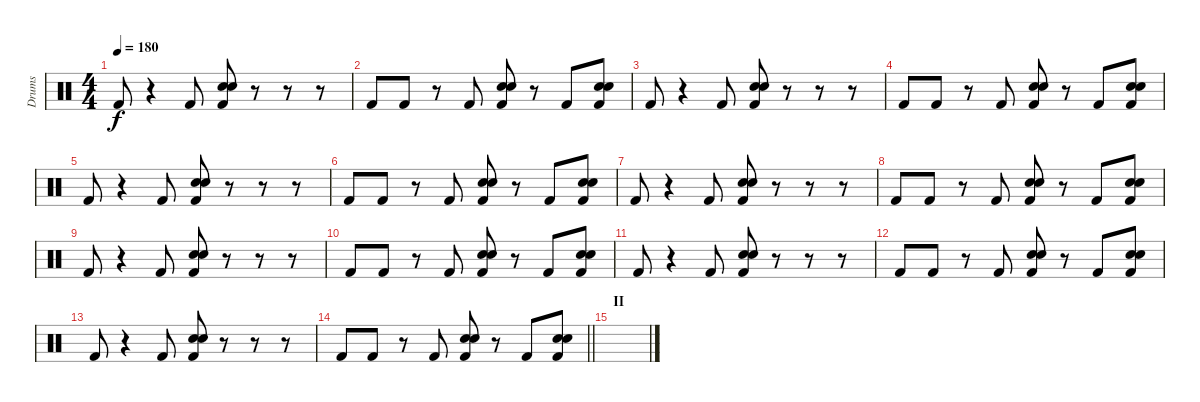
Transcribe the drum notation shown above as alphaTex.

\track ("Drums" "Drums") {instrument percussion}
\staff {score}
\articulation defaults
\ts (4 4)
\tempo 180
\clef neutral
\ks c "Kick (hit) 2".8{dy f}
r.4 "Kick (hit) 2".8 ("Kick (hit) 2" "Snare (hit) 2" "Electric Snare (hit)").8 r.8 r.8 r.8 |
"Kick (hit) 2".8 "Kick (hit) 2".8 r.8 "Kick (hit) 2".8 ("Kick (hit) 2" "Snare (hit) 2" "Electric Snare (hit)").8 r.8 "Kick (hit) 2".8 ("Kick (hit) 2" "Snare (hit) 2" "Electric Snare (hit)").8 |
"Kick (hit) 2".8 r.4 "Kick (hit) 2".8 ("Kick (hit) 2" "Snare (hit) 2" "Electric Snare (hit)").8 r.8 r.8 r.8 |
"Kick (hit) 2".8 "Kick (hit) 2".8 r.8 "Kick (hit) 2".8 ("Kick (hit) 2" "Snare (hit) 2" "Electric Snare (hit)").8 r.8 "Kick (hit) 2".8 ("Kick (hit) 2" "Snare (hit) 2" "Electric Snare (hit)").8 |
"Kick (hit) 2".8 r.4 "Kick (hit) 2".8 ("Kick (hit) 2" "Snare (hit) 2" "Electric Snare (hit)").8 r.8 r.8 r.8 |
"Kick (hit) 2".8 "Kick (hit) 2".8 r.8 "Kick (hit) 2".8 ("Kick (hit) 2" "Snare (hit) 2" "Electric Snare (hit)").8 r.8 "Kick (hit) 2".8 ("Kick (hit) 2" "Snare (hit) 2" "Electric Snare (hit)").8 |
"Kick (hit) 2".8 r.4 "Kick (hit) 2".8 ("Kick (hit) 2" "Snare (hit) 2" "Electric Snare (hit)").8 r.8 r.8 r.8 |
"Kick (hit) 2".8 "Kick (hit) 2".8 r.8 "Kick (hit) 2".8 ("Kick (hit) 2" "Snare (hit) 2" "Electric Snare (hit)").8 r.8 "Kick (hit) 2".8 ("Kick (hit) 2" "Snare (hit) 2" "Electric Snare (hit)").8 |
"Kick (hit) 2".8 r.4 "Kick (hit) 2".8 ("Kick (hit) 2" "Snare (hit) 2" "Electric Snare (hit)").8 r.8 r.8 r.8 |
"Kick (hit) 2".8 "Kick (hit) 2".8 r.8 "Kick (hit) 2".8 ("Kick (hit) 2" "Snare (hit) 2" "Electric Snare (hit)").8 r.8 "Kick (hit) 2".8 ("Kick (hit) 2" "Snare (hit) 2" "Electric Snare (hit)").8 |
"Kick (hit) 2".8 r.4 "Kick (hit) 2".8 ("Kick (hit) 2" "Snare (hit) 2" "Electric Snare (hit)").8 r.8 r.8 r.8 |
"Kick (hit) 2".8 "Kick (hit) 2".8 r.8 "Kick (hit) 2".8 ("Kick (hit) 2" "Snare (hit) 2" "Electric Snare (hit)").8 r.8 "Kick (hit) 2".8 ("Kick (hit) 2" "Snare (hit) 2" "Electric Snare (hit)").8 |
"Kick (hit) 2".8 r.4 "Kick (hit) 2".8 ("Kick (hit) 2" "Snare (hit) 2" "Electric Snare (hit)").8 r.8 r.8 r.8 |
\barLineRight lightlight "Kick (hit) 2".8 "Kick (hit) 2".8
r.8 "Kick (hit) 2".8 ("Kick (hit) 2" "Snare (hit) 2" "Electric Snare (hit)").8 r.8 "Kick (hit) 2".8 ("Kick (hit) 2" "Snare (hit) 2" "Electric Snare (hit)").8 |
\section ("" "II")
